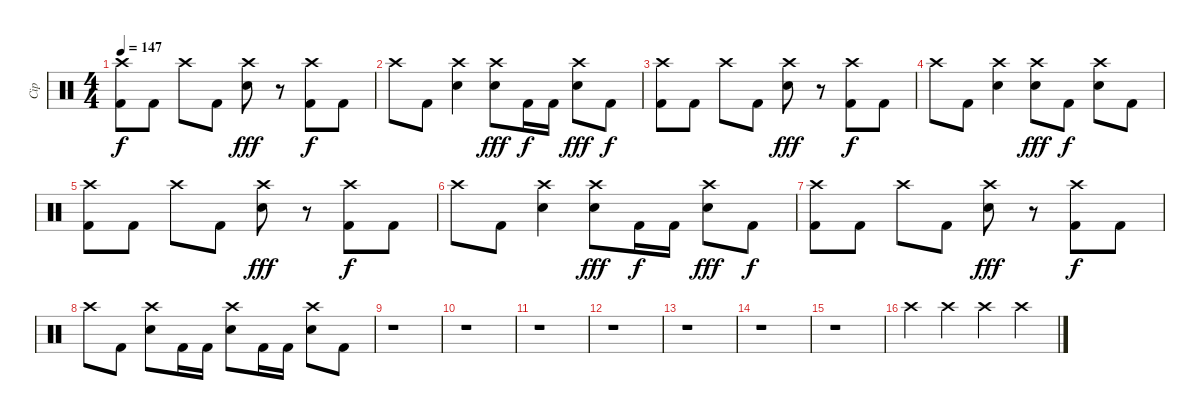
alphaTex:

\track ("Cip" "Cip") {instrument percussion}
\staff {score}
\articulation defaults
\ts (4 4)
\tempo 147
\clef neutral
\ks c
("Crash high (hit)" "Kick (hit) 2").8{dy f} "Kick (hit) 2".8 "Crash high (hit)".8 "Kick (hit) 2".8 ("Crash high (hit)" "Electric Snare (hit)").8{dy fff} r.8 ("Crash high (hit)" "Kick (hit) 2").8{dy f} "Kick (hit) 2".8 |
"Crash high (hit)".8 "Kick (hit) 2".8 ("Crash high (hit)" "Electric Snare (hit)").4 ("Crash high (hit)" "Electric Snare (hit)").8{dy fff} "Kick (hit) 2".16{dy f} "Kick (hit) 2".16 ("Crash high (hit)" "Electric Snare (hit)").8{dy fff} "Kick (hit) 2".8{dy f} |
("Crash high (hit)" "Kick (hit) 2").8 "Kick (hit) 2".8 "Crash high (hit)".8 "Kick (hit) 2".8 ("Crash high (hit)" "Electric Snare (hit)").8{dy fff} r.8 ("Crash high (hit)" "Kick (hit) 2").8{dy f} "Kick (hit) 2".8 |
"Crash high (hit)".8 "Kick (hit) 2".8 ("Crash high (hit)" "Electric Snare (hit)").4 ("Crash high (hit)" "Electric Snare (hit)").8{dy fff} "Kick (hit) 2".8{dy f} ("Crash high (hit)" "Electric Snare (hit)").8 "Kick (hit) 2".8 |
("Crash high (hit)" "Kick (hit) 2").8 "Kick (hit) 2".8 "Crash high (hit)".8 "Kick (hit) 2".8 ("Crash high (hit)" "Electric Snare (hit)").8{dy fff} r.8 ("Crash high (hit)" "Kick (hit) 2").8{dy f} "Kick (hit) 2".8 |
"Crash high (hit)".8 "Kick (hit) 2".8 ("Crash high (hit)" "Electric Snare (hit)").4 ("Crash high (hit)" "Electric Snare (hit)").8{dy fff} "Kick (hit) 2".16{dy f} "Kick (hit) 2".16 ("Crash high (hit)" "Electric Snare (hit)").8{dy fff} "Kick (hit) 2".8{dy f} |
("Crash high (hit)" "Kick (hit) 2").8 "Kick (hit) 2".8 "Crash high (hit)".8 "Kick (hit) 2".8 ("Crash high (hit)" "Electric Snare (hit)").8{dy fff} r.8 ("Crash high (hit)" "Kick (hit) 2").8{dy f} "Kick (hit) 2".8 |
"Crash high (hit)".8 "Kick (hit) 2".8 ("Crash high (hit)" "Electric Snare (hit)").8 "Kick (hit) 2".16 "Kick (hit) 2".16 ("Crash high (hit)" "Electric Snare (hit)").8 "Kick (hit) 2".16 "Kick (hit) 2".16 ("Crash high (hit)" "Electric Snare (hit)").8 "Kick (hit) 2".8 |
r.1 |
r.1 |
r.1 |
r.1 |
r.1 |
r.1 |
r.1 |
"Crash high (hit)".4 "Crash high (hit)".4 "Crash high (hit)".4 "Crash high (hit)".4
